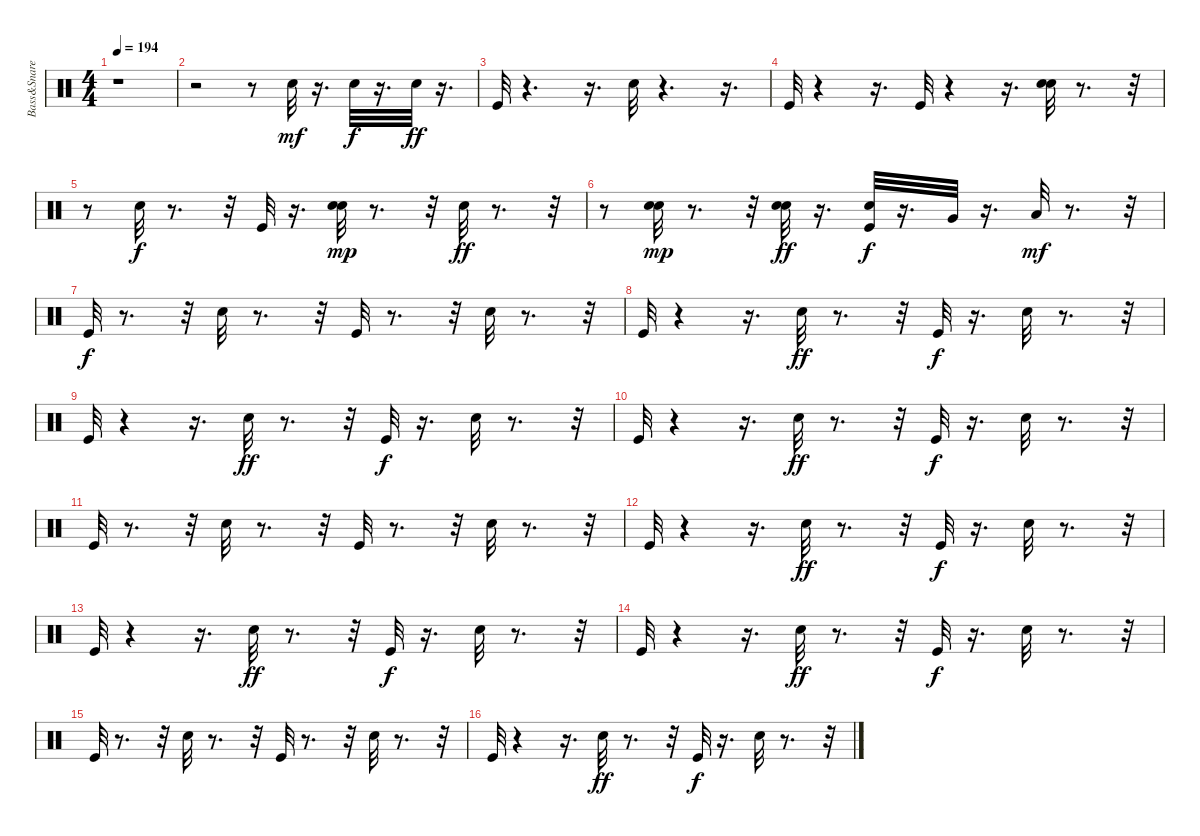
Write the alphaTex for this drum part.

\track ("Bass&Snare" "Bass&Snare") {instrument percussion}
\staff {score}
\articulation defaults
\ts (4 4)
\tempo 194
\clef neutral
\ks c
r.1{dy mf} |
r.2 r.8 "Snare (hit) 2".32 r.16{d} "Snare (hit) 2".32{dy f} r.16{d} "Snare (hit) 2".32{dy ff} r.16{d} |
"Kick (hit)".32 r.4{d} r.16{d} "Snare (hit) 2".32 r.4{d} r.16{d} |
"Kick (hit)".32 r.4 r.16{d} "Kick (hit)".32 r.4 r.16{d} ("Snare (hit) 2" "Snare (hit) 2").32 r.8{d} r.32 |
r.8 "Snare (hit) 2".32{dy f} r.8{d} r.32 "Kick (hit)".32 r.16{d} ("Snare (hit) 2" "Snare (hit) 2").32{dy mp} r.8{d} r.32 "Snare (hit) 2".32{dy ff} r.8{d} r.32 |
r.8 ("Snare (hit) 2" "Snare (hit) 2").32{dy mp} r.8{d} r.32 ("Snare (hit) 2" "Snare (hit) 2").32{dy ff} r.16{d} ("Kick (hit)" "Snare (hit) 2").32{dy f} r.16{d} "Very Low Tom (hit)".32 r.16{d} "Low Floor Tom (hit)".32{dy mf} r.8{d} r.32 |
"Kick (hit)".32{dy f} r.8{d} r.32 "Snare (hit) 2".32 r.8{d} r.32 "Kick (hit)".32 r.8{d} r.32 "Snare (hit) 2".32 r.8{d} r.32 |
"Kick (hit)".32 r.4 r.16{d} "Snare (hit) 2".32{dy ff} r.8{d} r.32 "Kick (hit)".32{dy f} r.16{d} "Snare (hit) 2".32 r.8{d} r.32 |
"Kick (hit)".32 r.4 r.16{d} "Snare (hit) 2".32{dy ff} r.8{d} r.32 "Kick (hit)".32{dy f} r.16{d} "Snare (hit) 2".32 r.8{d} r.32 |
"Kick (hit)".32 r.4 r.16{d} "Snare (hit) 2".32{dy ff} r.8{d} r.32 "Kick (hit)".32{dy f} r.16{d} "Snare (hit) 2".32 r.8{d} r.32 |
"Kick (hit)".32 r.8{d} r.32 "Snare (hit) 2".32 r.8{d} r.32 "Kick (hit)".32 r.8{d} r.32 "Snare (hit) 2".32 r.8{d} r.32 |
"Kick (hit)".32 r.4 r.16{d} "Snare (hit) 2".32{dy ff} r.8{d} r.32 "Kick (hit)".32{dy f} r.16{d} "Snare (hit) 2".32 r.8{d} r.32 |
"Kick (hit)".32 r.4 r.16{d} "Snare (hit) 2".32{dy ff} r.8{d} r.32 "Kick (hit)".32{dy f} r.16{d} "Snare (hit) 2".32 r.8{d} r.32 |
"Kick (hit)".32 r.4 r.16{d} "Snare (hit) 2".32{dy ff} r.8{d} r.32 "Kick (hit)".32{dy f} r.16{d} "Snare (hit) 2".32 r.8{d} r.32 |
"Kick (hit)".32 r.8{d} r.32 "Snare (hit) 2".32 r.8{d} r.32 "Kick (hit)".32 r.8{d} r.32 "Snare (hit) 2".32 r.8{d} r.32 |
"Kick (hit)".32 r.4 r.16{d} "Snare (hit) 2".32{dy ff} r.8{d} r.32 "Kick (hit)".32{dy f} r.16{d} "Snare (hit) 2".32 r.8{d} r.32
